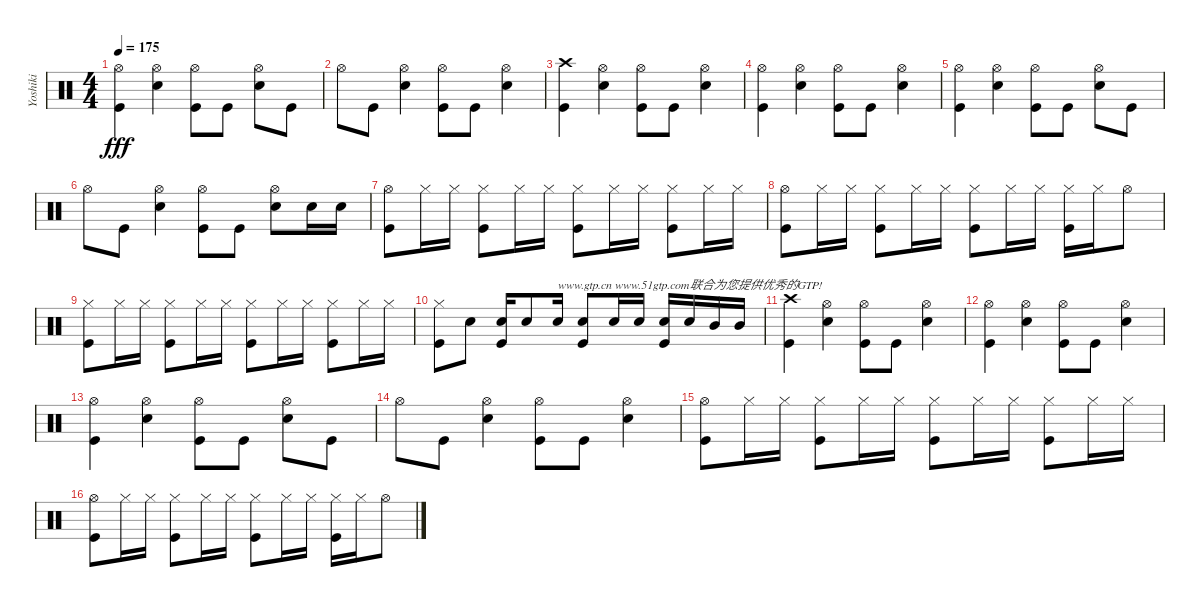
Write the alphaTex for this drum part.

\track ("Yoshiki" "Yoshiki") {instrument percussion}
\staff {score}
\articulation defaults
\ts (4 4)
\tempo 175
\clef neutral
\ks c
("Hi-Hat (open)" "Kick (hit)").4{dy fff} ("Hi-Hat (open)" "Snare (hit) 2").4 ("Hi-Hat (open)" "Kick (hit)").8 "Kick (hit)".8 ("Hi-Hat (open)" "Snare (hit) 2").8 "Kick (hit)".8 |
"Hi-Hat (open)".8 "Kick (hit)".8 ("Hi-Hat (open)" "Snare (hit) 2").4 ("Hi-Hat (open)" "Kick (hit)").8 "Kick (hit)".8 ("Hi-Hat (open)" "Snare (hit) 2").4 |
("Crash high (hit)" "Kick (hit)").4 ("Hi-Hat (open)" "Snare (hit) 2").4 ("Hi-Hat (open)" "Kick (hit)").8 "Kick (hit)".8 ("Hi-Hat (open)" "Snare (hit) 2").4 |
("Hi-Hat (open)" "Kick (hit)").4 ("Hi-Hat (open)" "Snare (hit) 2").4 ("Hi-Hat (open)" "Kick (hit)").8 "Kick (hit)".8 ("Hi-Hat (open)" "Snare (hit) 2").4 |
("Hi-Hat (open)" "Kick (hit)").4 ("Hi-Hat (open)" "Snare (hit) 2").4 ("Hi-Hat (open)" "Kick (hit)").8 "Kick (hit)".8 ("Hi-Hat (open)" "Snare (hit) 2").8 "Kick (hit)".8 |
"Hi-Hat (open)".8 "Kick (hit)".8 ("Hi-Hat (open)" "Snare (hit) 2").4 ("Hi-Hat (open)" "Kick (hit)").8 "Kick (hit)".8 ("Hi-Hat (open)" "Snare (hit) 2").8 "Snare (hit) 2".16 "Snare (hit) 2".16 |
("Hi-Hat (open)" "Kick (hit)").8 "Hi-Hat (closed)".16 "Hi-Hat (closed)".16 ("Hi-Hat (closed)" "Kick (hit)").8 "Hi-Hat (closed)".16 "Hi-Hat (closed)".16 ("Hi-Hat (closed)" "Kick (hit)").8 "Hi-Hat (closed)".16 "Hi-Hat (closed)".16 ("Hi-Hat (closed)" "Kick (hit)").8 "Hi-Hat (closed)".16 "Hi-Hat (closed)".16 |
("Hi-Hat (open)" "Kick (hit)").8 "Hi-Hat (closed)".16 "Hi-Hat (closed)".16 ("Hi-Hat (closed)" "Kick (hit)").8 "Hi-Hat (closed)".16 "Hi-Hat (closed)".16 ("Hi-Hat (closed)" "Kick (hit)").8 "Hi-Hat (closed)".16 "Hi-Hat (closed)".16 ("Hi-Hat (closed)" "Kick (hit)").16 "Hi-Hat (closed)".16 "Hi-Hat (open)".8 |
("Hi-Hat (closed)" "Kick (hit)").8 "Hi-Hat (closed)".16 "Hi-Hat (closed)".16 ("Hi-Hat (closed)" "Kick (hit)").8 "Hi-Hat (closed)".16 "Hi-Hat (closed)".16 ("Hi-Hat (closed)" "Kick (hit)").8 "Hi-Hat (closed)".16 "Hi-Hat (closed)".16 ("Hi-Hat (closed)" "Kick (hit)").8 "Hi-Hat (closed)".16 "Hi-Hat (closed)".16 |
("Hi-Hat (closed)" "Kick (hit)").8 "Snare (hit) 2".8 ("Snare (hit) 2" "Kick (hit)").16 "Snare (hit) 2".8 "Snare (hit) 2".16{txt "www.gtp.cn www.51gtp.com联合为您提供优秀的GTP!"} ("Snare (hit) 2" "Kick (hit)").8 "Snare (hit) 2".16 "Snare (hit) 2".16 ("Snare (hit) 2" "Kick (hit)").16 "Snare (hit) 2".16 "Mid Tom (hit)".16 "Mid Tom (hit)".16 |
("Crash high (hit)" "Kick (hit)").4 ("Hi-Hat (open)" "Snare (hit) 2").4 ("Hi-Hat (open)" "Kick (hit)").8 "Kick (hit)".8 ("Hi-Hat (open)" "Snare (hit) 2").4 |
("Hi-Hat (open)" "Kick (hit)").4 ("Hi-Hat (open)" "Snare (hit) 2").4 ("Hi-Hat (open)" "Kick (hit)").8 "Kick (hit)".8 ("Hi-Hat (open)" "Snare (hit) 2").4 |
("Hi-Hat (open)" "Kick (hit)").4 ("Hi-Hat (open)" "Snare (hit) 2").4 ("Hi-Hat (open)" "Kick (hit)").8 "Kick (hit)".8 ("Hi-Hat (open)" "Snare (hit) 2").8 "Kick (hit)".8 |
"Hi-Hat (open)".8 "Kick (hit)".8 ("Hi-Hat (open)" "Snare (hit) 2").4 ("Hi-Hat (open)" "Kick (hit)").8 "Kick (hit)".8 ("Hi-Hat (open)" "Snare (hit) 2").4 |
("Hi-Hat (open)" "Kick (hit)").8 "Hi-Hat (closed)".16 "Hi-Hat (closed)".16 ("Hi-Hat (closed)" "Kick (hit)").8 "Hi-Hat (closed)".16 "Hi-Hat (closed)".16 ("Hi-Hat (closed)" "Kick (hit)").8 "Hi-Hat (closed)".16 "Hi-Hat (closed)".16 ("Hi-Hat (closed)" "Kick (hit)").8 "Hi-Hat (closed)".16 "Hi-Hat (closed)".16 |
("Hi-Hat (open)" "Kick (hit)").8 "Hi-Hat (closed)".16 "Hi-Hat (closed)".16 ("Hi-Hat (closed)" "Kick (hit)").8 "Hi-Hat (closed)".16 "Hi-Hat (closed)".16 ("Hi-Hat (closed)" "Kick (hit)").8 "Hi-Hat (closed)".16 "Hi-Hat (closed)".16 ("Hi-Hat (closed)" "Kick (hit)").16 "Hi-Hat (closed)".16 "Hi-Hat (open)".8
